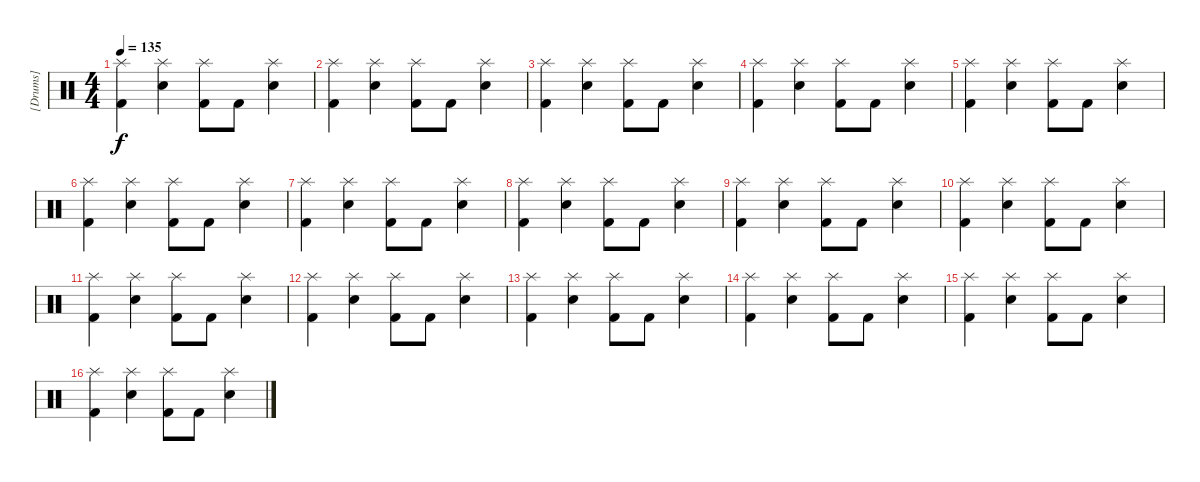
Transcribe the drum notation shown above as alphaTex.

\track ("[Drums]" "[Drums]") {instrument percussion}
\staff {score}
\articulation defaults
\ts (4 4)
\tempo 135
\clef neutral
\ks c
("Splash (hit)" "Kick (hit) 2").4{dy f} ("Splash (hit)" "Snare (hit) 2").4 ("Splash (hit)" "Kick (hit) 2").8 "Kick (hit) 2".8 ("Splash (hit)" "Snare (hit) 2").4 |
("Splash (hit)" "Kick (hit) 2").4 ("Splash (hit)" "Snare (hit) 2").4 ("Splash (hit)" "Kick (hit) 2").8 "Kick (hit) 2".8 ("Splash (hit)" "Snare (hit) 2").4 |
("Splash (hit)" "Kick (hit) 2").4 ("Splash (hit)" "Snare (hit) 2").4 ("Splash (hit)" "Kick (hit) 2").8 "Kick (hit) 2".8 ("Splash (hit)" "Snare (hit) 2").4 |
("Splash (hit)" "Kick (hit) 2").4 ("Splash (hit)" "Snare (hit) 2").4 ("Splash (hit)" "Kick (hit) 2").8 "Kick (hit) 2".8 ("Splash (hit)" "Snare (hit) 2").4 |
("Splash (hit)" "Kick (hit) 2").4 ("Splash (hit)" "Snare (hit) 2").4 ("Splash (hit)" "Kick (hit) 2").8 "Kick (hit) 2".8 ("Splash (hit)" "Snare (hit) 2").4 |
("Splash (hit)" "Kick (hit) 2").4 ("Splash (hit)" "Snare (hit) 2").4 ("Splash (hit)" "Kick (hit) 2").8 "Kick (hit) 2".8 ("Splash (hit)" "Snare (hit) 2").4 |
("Splash (hit)" "Kick (hit) 2").4 ("Splash (hit)" "Snare (hit) 2").4 ("Splash (hit)" "Kick (hit) 2").8 "Kick (hit) 2".8 ("Splash (hit)" "Snare (hit) 2").4 |
("Splash (hit)" "Kick (hit) 2").4 ("Splash (hit)" "Snare (hit) 2").4 ("Splash (hit)" "Kick (hit) 2").8 "Kick (hit) 2".8 ("Splash (hit)" "Snare (hit) 2").4 |
("Splash (hit)" "Kick (hit) 2").4 ("Splash (hit)" "Snare (hit) 2").4 ("Splash (hit)" "Kick (hit) 2").8 "Kick (hit) 2".8 ("Splash (hit)" "Snare (hit) 2").4 |
("Splash (hit)" "Kick (hit) 2").4 ("Splash (hit)" "Snare (hit) 2").4 ("Splash (hit)" "Kick (hit) 2").8 "Kick (hit) 2".8 ("Splash (hit)" "Snare (hit) 2").4 |
("Splash (hit)" "Kick (hit) 2").4 ("Splash (hit)" "Snare (hit) 2").4 ("Splash (hit)" "Kick (hit) 2").8 "Kick (hit) 2".8 ("Splash (hit)" "Snare (hit) 2").4 |
("Splash (hit)" "Kick (hit) 2").4 ("Splash (hit)" "Snare (hit) 2").4 ("Splash (hit)" "Kick (hit) 2").8 "Kick (hit) 2".8 ("Splash (hit)" "Snare (hit) 2").4 |
("Splash (hit)" "Kick (hit) 2").4 ("Splash (hit)" "Snare (hit) 2").4 ("Splash (hit)" "Kick (hit) 2").8 "Kick (hit) 2".8 ("Splash (hit)" "Snare (hit) 2").4 |
("Splash (hit)" "Kick (hit) 2").4 ("Splash (hit)" "Snare (hit) 2").4 ("Splash (hit)" "Kick (hit) 2").8 "Kick (hit) 2".8 ("Splash (hit)" "Snare (hit) 2").4 |
("Splash (hit)" "Kick (hit) 2").4 ("Splash (hit)" "Snare (hit) 2").4 ("Splash (hit)" "Kick (hit) 2").8 "Kick (hit) 2".8 ("Splash (hit)" "Snare (hit) 2").4 |
("Splash (hit)" "Kick (hit) 2").4 ("Splash (hit)" "Snare (hit) 2").4 ("Splash (hit)" "Kick (hit) 2").8 "Kick (hit) 2".8 ("Splash (hit)" "Snare (hit) 2").4
